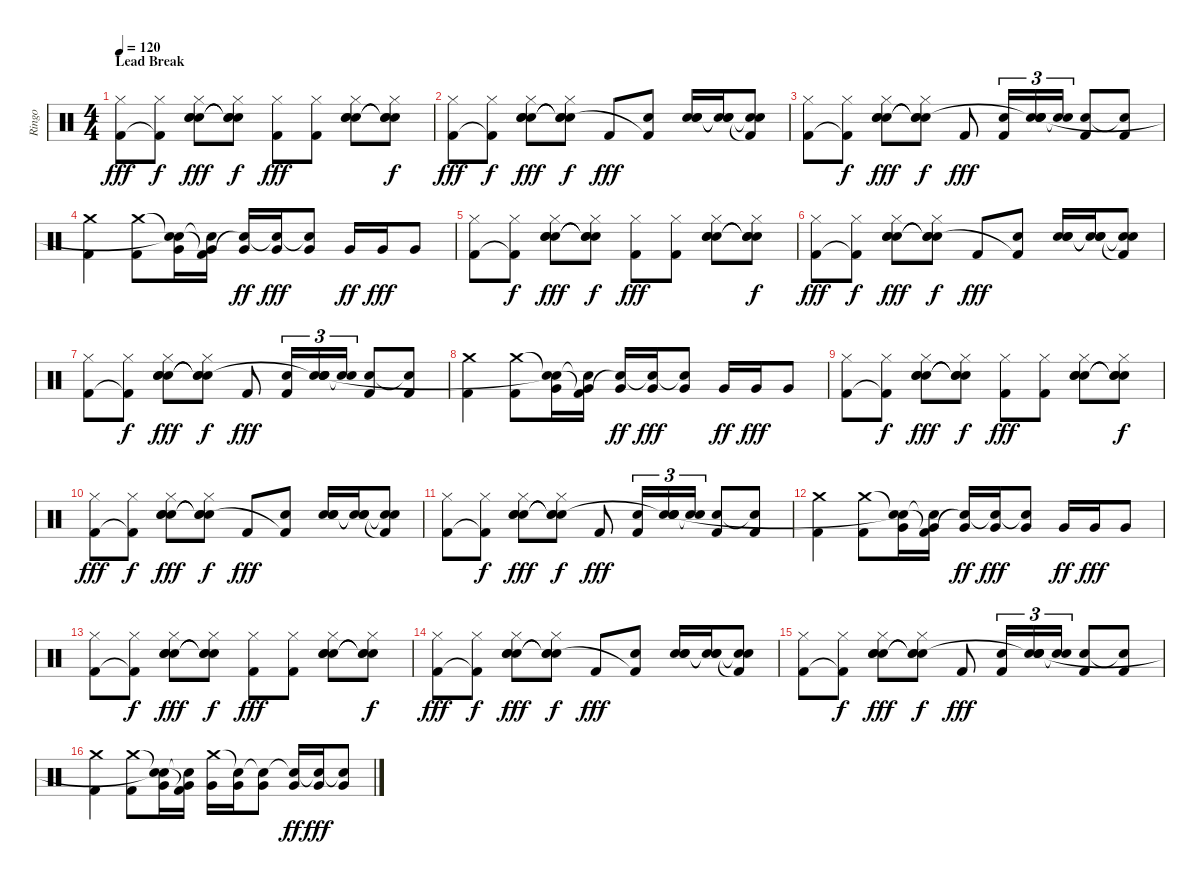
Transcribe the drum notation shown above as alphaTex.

\track ("Ringo" "Ringo") {instrument percussion}
\staff {score}
\articulation defaults
\ts (4 4)
\section ("" "Lead Break")
\tempo 120
\clef neutral
\ks c
("Hi-Hat (closed)" "Kick (hit) 2").8{dy fff} ("Hi-Hat (closed)" "Kick (hit) 2"{t}).8{dy f} ("Hi-Hat (closed)" "Electric Snare (hit)" "Hand Clap (hit)" "Hand Clap (hit)").8{dy fff} ("Hi-Hat (closed)" "Electric Snare (hit)"{t} "Snare (hit)"{t} "Hand Clap (hit)"{t}).8{dy f} ("Hi-Hat (closed)" "Kick (hit) 2").8{dy fff} ("Hi-Hat (closed)" "Kick (hit) 2").8 ("Hi-Hat (closed)" "Electric Snare (hit)" "Hand Clap (hit)" "Hand Clap (hit)").8 ("Hi-Hat (closed)" "Snare (hit)"{t} "Snare (hit)"{t} "Snare (hit)"{t}).8{dy f} |
("Hi-Hat (closed)" "Kick (hit) 2").8{dy fff} ("Hi-Hat (closed)" "Kick (hit) 2"{t}).8{dy f} ("Hi-Hat (closed)" "Electric Snare (hit)" "Hand Clap (hit)" "Hand Clap (hit)").8{dy fff} ("Hi-Hat (closed)" "Electric Snare (hit)"{t} "Snare (hit)"{t} "Hand Clap (hit)"{t}).8{dy f} "Kick (hit) 2".8{dy fff} ("Electric Snare (hit)" "Kick (hit) 2"{t}).8 ("Electric Snare (hit)" "Hand Clap (hit)" "Hand Clap (hit)").16 ("Electric Snare (hit)" "Snare (hit)"{t} "Snare (hit)"{t}).16 ("Electric Snare (hit)" "Kick (hit) 2"{t} "Snare (hit)"{t}).8 |
("Hi-Hat (closed)" "Kick (hit) 2").8 ("Hi-Hat (closed)" "Kick (hit) 2"{t}).8{dy f} ("Hi-Hat (closed)" "Electric Snare (hit)" "Hand Clap (hit)" "Hand Clap (hit)").8{dy fff} ("Hi-Hat (closed)" "Electric Snare (hit)"{t} "Snare (hit)"{t} "Hand Clap (hit)"{t}).8{dy f} "Kick (hit) 2".8{dy fff} ("Electric Snare (hit)" "Kick (hit) 2").16{tu (3 2)} ("Hand Clap (hit)" "Hand Clap (hit)" "Electric Snare (hit)" "Hand Clap (hit)"{t}).16{tu (3 2)} ("Electric Snare (hit)" "Snare (hit)"{t}).16{tu (3 2)} ("Electric Snare (hit)" "Kick (hit) 2").8 ("Electric Snare (hit)"{t} "Kick (hit) 2").8 |
("Kick (hit) 2" "Crash medium (hit)").4 ("Kick (hit) 2" "Crash medium (hit)").8 ("Very Low Tom (hit)" "Snare (hit)"{t} "Snare (hit)"{t}).16 ("Very Low Tom (hit)" "Kick (hit) 2"{t} "Snare (hit)"{t}).16 ("Very Low Tom (hit)" "Snare (hit)"{t}).16{dy ff} ("Very Low Tom (hit)" "Snare (hit)"{t}).16{dy fff} ("Very Low Tom (hit)" "Snare (hit)"{t}).8 "Very Low Tom (hit)".16{dy ff} "Very Low Tom (hit)".16{dy fff} "Very Low Tom (hit)".8 |
("Hi-Hat (closed)" "Kick (hit) 2").8 ("Hi-Hat (closed)" "Kick (hit) 2"{t}).8{dy f} ("Hi-Hat (closed)" "Electric Snare (hit)" "Hand Clap (hit)" "Hand Clap (hit)").8{dy fff} ("Hi-Hat (closed)" "Electric Snare (hit)"{t} "Snare (hit)"{t} "Hand Clap (hit)"{t}).8{dy f} ("Hi-Hat (closed)" "Kick (hit) 2").8{dy fff} ("Hi-Hat (closed)" "Kick (hit) 2").8 ("Hi-Hat (closed)" "Electric Snare (hit)" "Hand Clap (hit)" "Hand Clap (hit)").8 ("Hi-Hat (closed)" "Snare (hit)"{t} "Snare (hit)"{t} "Snare (hit)"{t}).8{dy f} |
("Hi-Hat (closed)" "Kick (hit) 2").8{dy fff} ("Hi-Hat (closed)" "Kick (hit) 2"{t}).8{dy f} ("Hi-Hat (closed)" "Electric Snare (hit)" "Hand Clap (hit)" "Hand Clap (hit)").8{dy fff} ("Hi-Hat (closed)" "Electric Snare (hit)"{t} "Snare (hit)"{t} "Hand Clap (hit)"{t}).8{dy f} "Kick (hit) 2".8{dy fff} ("Electric Snare (hit)" "Kick (hit) 2"{t}).8 ("Electric Snare (hit)" "Hand Clap (hit)" "Hand Clap (hit)").16 ("Electric Snare (hit)" "Snare (hit)"{t} "Snare (hit)"{t}).16 ("Electric Snare (hit)" "Kick (hit) 2"{t} "Snare (hit)"{t}).8 |
("Hi-Hat (closed)" "Kick (hit) 2").8 ("Hi-Hat (closed)" "Kick (hit) 2"{t}).8{dy f} ("Hi-Hat (closed)" "Electric Snare (hit)" "Hand Clap (hit)" "Hand Clap (hit)").8{dy fff} ("Hi-Hat (closed)" "Electric Snare (hit)"{t} "Snare (hit)"{t} "Hand Clap (hit)"{t}).8{dy f} "Kick (hit) 2".8{dy fff} ("Electric Snare (hit)" "Kick (hit) 2").16{tu (3 2)} ("Hand Clap (hit)" "Hand Clap (hit)" "Electric Snare (hit)" "Hand Clap (hit)"{t}).16{tu (3 2)} ("Electric Snare (hit)" "Snare (hit)"{t}).16{tu (3 2)} ("Electric Snare (hit)" "Kick (hit) 2").8 ("Electric Snare (hit)"{t} "Kick (hit) 2").8 |
("Kick (hit) 2" "Crash medium (hit)").4 ("Kick (hit) 2" "Crash medium (hit)").8 ("Very Low Tom (hit)" "Snare (hit)"{t} "Snare (hit)"{t}).16 ("Very Low Tom (hit)" "Kick (hit) 2"{t} "Snare (hit)"{t}).16 ("Very Low Tom (hit)" "Snare (hit)"{t}).16{dy ff} ("Very Low Tom (hit)" "Snare (hit)"{t}).16{dy fff} ("Very Low Tom (hit)" "Snare (hit)"{t}).8 "Very Low Tom (hit)".16{dy ff} "Very Low Tom (hit)".16{dy fff} "Very Low Tom (hit)".8 |
("Hi-Hat (closed)" "Kick (hit) 2").8 ("Hi-Hat (closed)" "Kick (hit) 2"{t}).8{dy f} ("Hi-Hat (closed)" "Electric Snare (hit)" "Hand Clap (hit)" "Hand Clap (hit)").8{dy fff} ("Hi-Hat (closed)" "Electric Snare (hit)"{t} "Snare (hit)"{t} "Hand Clap (hit)"{t}).8{dy f} ("Hi-Hat (closed)" "Kick (hit) 2").8{dy fff} ("Hi-Hat (closed)" "Kick (hit) 2").8 ("Hi-Hat (closed)" "Electric Snare (hit)" "Hand Clap (hit)" "Hand Clap (hit)").8 ("Hi-Hat (closed)" "Snare (hit)"{t} "Snare (hit)"{t} "Snare (hit)"{t}).8{dy f} |
("Hi-Hat (closed)" "Kick (hit) 2").8{dy fff} ("Hi-Hat (closed)" "Kick (hit) 2"{t}).8{dy f} ("Hi-Hat (closed)" "Electric Snare (hit)" "Hand Clap (hit)" "Hand Clap (hit)").8{dy fff} ("Hi-Hat (closed)" "Electric Snare (hit)"{t} "Snare (hit)"{t} "Hand Clap (hit)"{t}).8{dy f} "Kick (hit) 2".8{dy fff} ("Electric Snare (hit)" "Kick (hit) 2"{t}).8 ("Electric Snare (hit)" "Hand Clap (hit)" "Hand Clap (hit)").16 ("Electric Snare (hit)" "Snare (hit)"{t} "Snare (hit)"{t}).16 ("Electric Snare (hit)" "Kick (hit) 2"{t} "Snare (hit)"{t}).8 |
("Hi-Hat (closed)" "Kick (hit) 2").8 ("Hi-Hat (closed)" "Kick (hit) 2"{t}).8{dy f} ("Hi-Hat (closed)" "Electric Snare (hit)" "Hand Clap (hit)" "Hand Clap (hit)").8{dy fff} ("Hi-Hat (closed)" "Electric Snare (hit)"{t} "Snare (hit)"{t} "Hand Clap (hit)"{t}).8{dy f} "Kick (hit) 2".8{dy fff} ("Electric Snare (hit)" "Kick (hit) 2").16{tu (3 2)} ("Hand Clap (hit)" "Hand Clap (hit)" "Electric Snare (hit)" "Hand Clap (hit)"{t}).16{tu (3 2)} ("Electric Snare (hit)" "Snare (hit)"{t}).16{tu (3 2)} ("Electric Snare (hit)" "Kick (hit) 2").8 ("Electric Snare (hit)"{t} "Kick (hit) 2").8 |
("Kick (hit) 2" "Crash medium (hit)").4 ("Kick (hit) 2" "Crash medium (hit)").8 ("Very Low Tom (hit)" "Snare (hit)"{t} "Snare (hit)"{t}).16 ("Very Low Tom (hit)" "Kick (hit) 2"{t} "Snare (hit)"{t}).16 ("Very Low Tom (hit)" "Snare (hit)"{t}).16{dy ff} ("Very Low Tom (hit)" "Snare (hit)"{t}).16{dy fff} ("Very Low Tom (hit)" "Snare (hit)"{t}).8 "Very Low Tom (hit)".16{dy ff} "Very Low Tom (hit)".16{dy fff} "Very Low Tom (hit)".8 |
("Hi-Hat (closed)" "Kick (hit) 2").8 ("Hi-Hat (closed)" "Kick (hit) 2"{t}).8{dy f} ("Hi-Hat (closed)" "Electric Snare (hit)" "Hand Clap (hit)" "Hand Clap (hit)").8{dy fff} ("Hi-Hat (closed)" "Electric Snare (hit)"{t} "Snare (hit)"{t} "Hand Clap (hit)"{t}).8{dy f} ("Hi-Hat (closed)" "Kick (hit) 2").8{dy fff} ("Hi-Hat (closed)" "Kick (hit) 2").8 ("Hi-Hat (closed)" "Electric Snare (hit)" "Hand Clap (hit)" "Hand Clap (hit)").8 ("Hi-Hat (closed)" "Snare (hit)"{t} "Snare (hit)"{t} "Snare (hit)"{t}).8{dy f} |
("Hi-Hat (closed)" "Kick (hit) 2").8{dy fff} ("Hi-Hat (closed)" "Kick (hit) 2"{t}).8{dy f} ("Hi-Hat (closed)" "Electric Snare (hit)" "Hand Clap (hit)" "Hand Clap (hit)").8{dy fff} ("Hi-Hat (closed)" "Electric Snare (hit)"{t} "Snare (hit)"{t} "Hand Clap (hit)"{t}).8{dy f} "Kick (hit) 2".8{dy fff} ("Electric Snare (hit)" "Kick (hit) 2"{t}).8 ("Electric Snare (hit)" "Hand Clap (hit)" "Hand Clap (hit)").16 ("Electric Snare (hit)" "Snare (hit)"{t} "Snare (hit)"{t}).16 ("Electric Snare (hit)" "Kick (hit) 2"{t} "Snare (hit)"{t}).8 |
("Hi-Hat (closed)" "Kick (hit) 2").8 ("Hi-Hat (closed)" "Kick (hit) 2"{t}).8{dy f} ("Hi-Hat (closed)" "Electric Snare (hit)" "Hand Clap (hit)" "Hand Clap (hit)").8{dy fff} ("Hi-Hat (closed)" "Electric Snare (hit)"{t} "Snare (hit)"{t} "Hand Clap (hit)"{t}).8{dy f} "Kick (hit) 2".8{dy fff} ("Electric Snare (hit)" "Kick (hit) 2").16{tu (3 2)} ("Hand Clap (hit)" "Hand Clap (hit)" "Electric Snare (hit)" "Hand Clap (hit)"{t}).16{tu (3 2)} ("Electric Snare (hit)" "Snare (hit)"{t}).16{tu (3 2)} ("Electric Snare (hit)" "Kick (hit) 2").8 ("Electric Snare (hit)"{t} "Kick (hit) 2").8 |
("Kick (hit) 2" "Crash medium (hit)").4 ("Kick (hit) 2" "Crash medium (hit)").8 ("Very Low Tom (hit)" "Snare (hit)"{t} "Snare (hit)"{t}).16 ("Very Low Tom (hit)" "Kick (hit) 2"{t} "Snare (hit)"{t}).16 ("Very Low Tom (hit)" "Crash medium (hit)").16 ("Very Low Tom (hit)" "Snare (hit)"{t}).16 ("Very Low Tom (hit)" "Snare (hit)"{t}).8 ("Very Low Tom (hit)" "Snare (hit)"{t}).16{dy ff} ("Very Low Tom (hit)" "Snare (hit)"{t}).16{dy fff} ("Very Low Tom (hit)" "Snare (hit)"{t}).8
